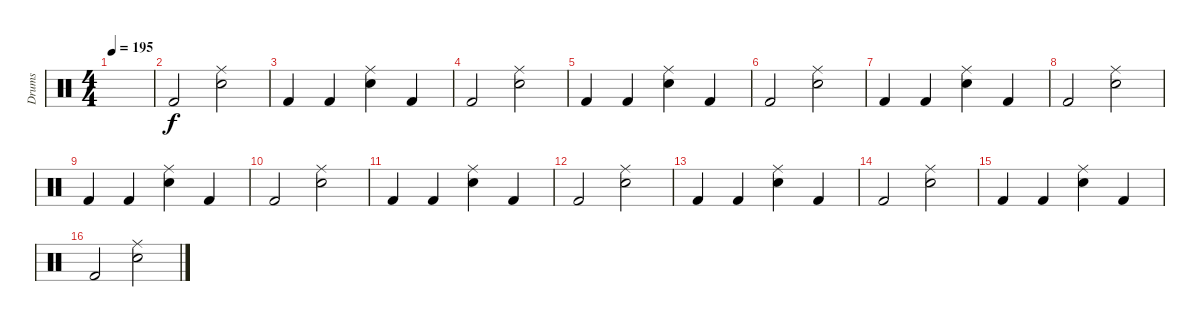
\track ("Drums" "Drums") {instrument percussion}
\staff {score}
\articulation defaults
\ts (4 4)
\tempo 195
\clef neutral
\ks c
|
"Kick (hit) 2".2 ("Ride (middle)" "Snare (hit) 2").2 |
"Kick (hit) 2".4 "Kick (hit) 2".4 ("Ride (middle)" "Snare (hit) 2").4 "Kick (hit) 2".4 |
"Kick (hit) 2".2 ("Ride (middle)" "Snare (hit) 2").2 |
"Kick (hit) 2".4 "Kick (hit) 2".4 ("Ride (middle)" "Snare (hit) 2").4 "Kick (hit) 2".4 |
"Kick (hit) 2".2 ("Ride (middle)" "Snare (hit) 2").2 |
"Kick (hit) 2".4 "Kick (hit) 2".4 ("Ride (middle)" "Snare (hit) 2").4 "Kick (hit) 2".4 |
"Kick (hit) 2".2 ("Ride (middle)" "Snare (hit) 2").2 |
"Kick (hit) 2".4 "Kick (hit) 2".4 ("Ride (middle)" "Snare (hit) 2").4 "Kick (hit) 2".4 |
"Kick (hit) 2".2 ("Ride (middle)" "Snare (hit) 2").2 |
"Kick (hit) 2".4 "Kick (hit) 2".4 ("Ride (middle)" "Snare (hit) 2").4 "Kick (hit) 2".4 |
"Kick (hit) 2".2 ("Ride (middle)" "Snare (hit) 2").2 |
"Kick (hit) 2".4 "Kick (hit) 2".4 ("Ride (middle)" "Snare (hit) 2").4 "Kick (hit) 2".4 |
"Kick (hit) 2".2 ("Ride (middle)" "Snare (hit) 2").2 |
"Kick (hit) 2".4 "Kick (hit) 2".4 ("Ride (middle)" "Snare (hit) 2").4 "Kick (hit) 2".4 |
"Kick (hit) 2".2 ("Ride (middle)" "Snare (hit) 2").2
